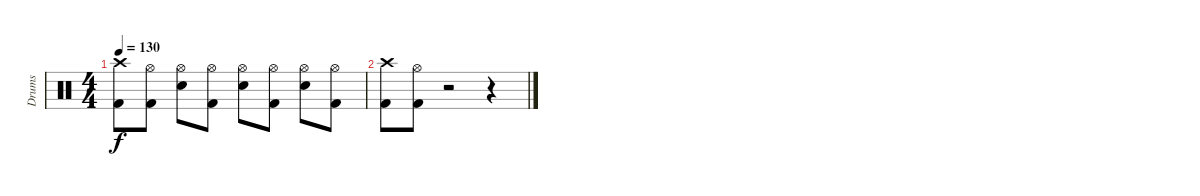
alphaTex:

\track ("Drums" "Drums") {instrument percussion}
\staff {score}
\articulation defaults
\ts (4 4)
\tempo 130
\clef neutral
\ks c
("Kick (hit) 2" "Crash high (hit)").8{dy f} ("Kick (hit) 2" "Hi-Hat (open)").8 ("Electric Snare (hit)" "Hi-Hat (open)").8 ("Kick (hit) 2" "Hi-Hat (open)").8 ("Hi-Hat (open)" "Electric Snare (hit)").8 ("Kick (hit) 2" "Hi-Hat (open)").8 ("Electric Snare (hit)" "Hi-Hat (open)").8 ("Hi-Hat (open)" "Kick (hit) 2").8 |
("Kick (hit) 2" "Crash high (hit)").8 ("Kick (hit) 2" "Hi-Hat (open)").8 r.2 r.4
